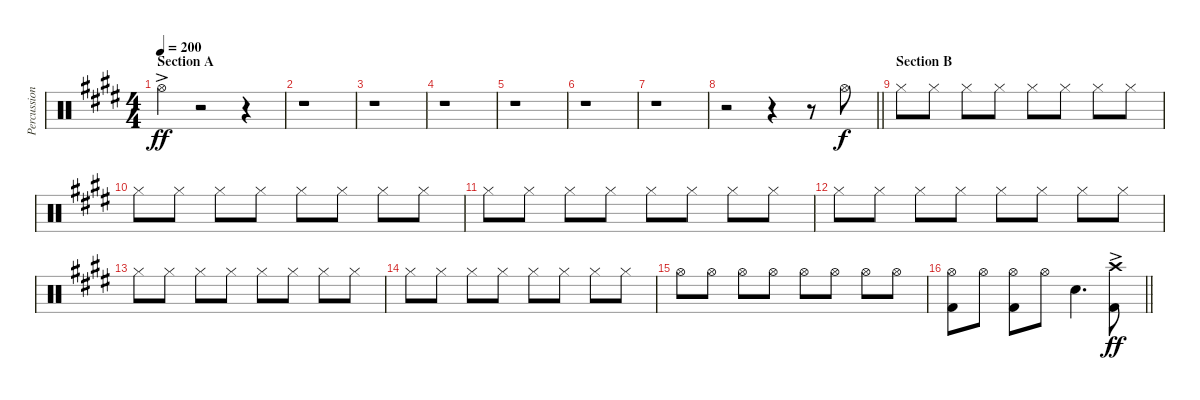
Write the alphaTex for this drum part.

\track ("Percussion - other" "Percussion") {instrument percussion}
\staff {score}
\articulation defaults
\ts (4 4)
\section ("" "Section A")
\tempo 200
\clef neutral
\ks e "Hi-Hat (open)"{ac}.4{dy ff}
r.2 r.4 |
r.1 |
r.1 |
r.1 |
r.1 |
r.1 |
r.1 |
\barLineRight lightlight
r.2 r.4 r.8 "Hi-Hat (open)".8{dy f} |
\section ("" "Section B")
"Hi-Hat (closed)".8 "Hi-Hat (closed)".8 "Hi-Hat (closed)".8 "Hi-Hat (closed)".8 "Hi-Hat (closed)".8 "Hi-Hat (closed)".8 "Hi-Hat (closed)".8 "Hi-Hat (closed)".8 |
"Hi-Hat (closed)".8 "Hi-Hat (closed)".8 "Hi-Hat (closed)".8 "Hi-Hat (closed)".8 "Hi-Hat (closed)".8 "Hi-Hat (closed)".8 "Hi-Hat (closed)".8 "Hi-Hat (closed)".8 |
"Hi-Hat (closed)".8 "Hi-Hat (closed)".8 "Hi-Hat (closed)".8 "Hi-Hat (closed)".8 "Hi-Hat (closed)".8 "Hi-Hat (closed)".8 "Hi-Hat (closed)".8 "Hi-Hat (closed)".8 |
"Hi-Hat (closed)".8 "Hi-Hat (closed)".8 "Hi-Hat (closed)".8 "Hi-Hat (closed)".8 "Hi-Hat (closed)".8 "Hi-Hat (closed)".8 "Hi-Hat (closed)".8 "Hi-Hat (closed)".8 |
"Hi-Hat (closed)".8 "Hi-Hat (closed)".8 "Hi-Hat (closed)".8 "Hi-Hat (closed)".8 "Hi-Hat (closed)".8 "Hi-Hat (closed)".8 "Hi-Hat (closed)".8 "Hi-Hat (closed)".8 |
"Hi-Hat (closed)".8 "Hi-Hat (closed)".8 "Hi-Hat (closed)".8 "Hi-Hat (closed)".8 "Hi-Hat (closed)".8 "Hi-Hat (closed)".8 "Hi-Hat (closed)".8 "Hi-Hat (closed)".8 |
"Hi-Hat (open)".8 "Hi-Hat (open)".8 "Hi-Hat (open)".8 "Hi-Hat (open)".8 "Hi-Hat (open)".8 "Hi-Hat (open)".8 "Hi-Hat (open)".8 "Hi-Hat (open)".8 |
\barLineRight lightlight
("Hi-Hat (open)" "Kick (hit) 2").8 "Hi-Hat (open)".8 ("Hi-Hat (open)" "Kick (hit) 2").8 "Hi-Hat (open)".8 "Snare (hit) 2".4{d} ("Crash high (hit)"{ac} "Kick (hit) 2").8{dy ff}
